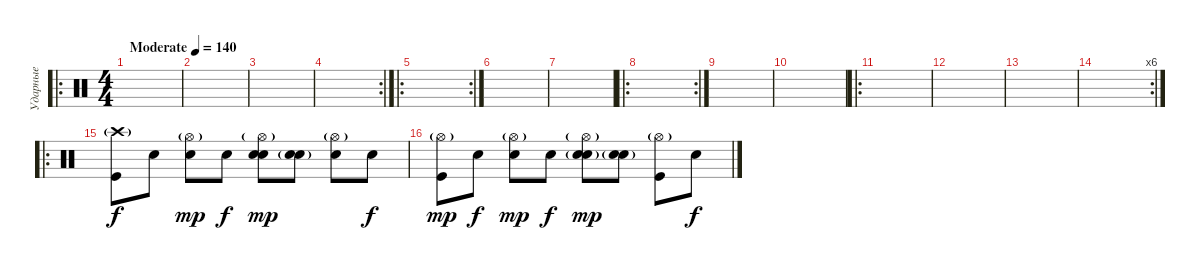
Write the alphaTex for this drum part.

\track ("Ударные" "Ударные") {instrument percussion}
\staff
\articulation defaults
\ro
\ts (4 4)
\tempo (140 "Moderate")
\clef neutral
\ks c
|
|
|
\rc 2
|
\ro
\rc 2
|
|
|
\ro
\rc 2
|
|
|
\ro
|
|
|
\rc 6
|
\ro
("Crash high (hit)"{g} "Kick (hit)").8 "Snare (hit)".8{dy f} ("Hi-Hat (open)"{g} "Snare (hit)").8{dy mp} "Snare (hit)".8{dy f} ("Hi-Hat (open)"{g} "Electric Snare (hit)" "Snare (hit)").8{dy mp} ("Electric Snare (hit)"{g} "Snare (hit)").8 ("Hi-Hat (open)"{g} "Snare (hit)").8 "Snare (hit)".8{dy f} |
("Hi-Hat (open)"{g} "Kick (hit)").8{dy mp} "Snare (hit)".8{dy f} ("Hi-Hat (open)"{g} "Snare (hit)").8{dy mp} "Snare (hit)".8{dy f} ("Hi-Hat (open)"{g} "Electric Snare (hit)" "Snare (hit)"{g}).8{dy mp} ("Electric Snare (hit)"{g} "Snare (hit)").8 ("Hi-Hat (open)"{g} "Kick (hit)").8 "Snare (hit)".8{dy f}
